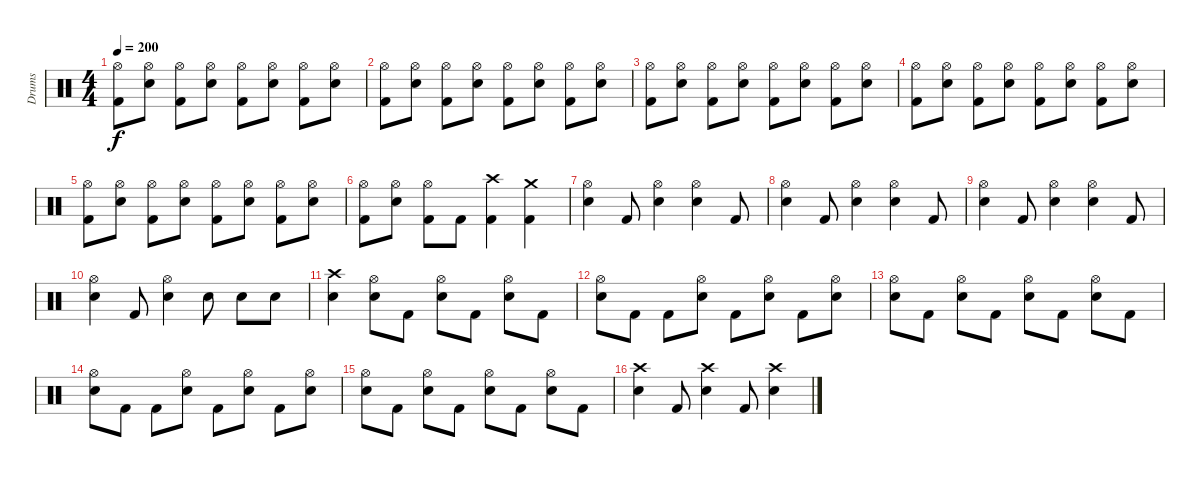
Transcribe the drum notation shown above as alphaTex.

\track ("Drums" "Drums") {instrument percussion}
\staff {score}
\articulation defaults
\ts (4 4)
\tempo 200
\clef neutral
\ks c
("Hi-Hat (open)" "Kick (hit) 2").8{dy f} ("Snare (hit) 2" "Hi-Hat (open)").8 ("Hi-Hat (open)" "Kick (hit) 2").8 ("Snare (hit) 2" "Hi-Hat (open)").8 ("Hi-Hat (open)" "Kick (hit) 2").8 ("Snare (hit) 2" "Hi-Hat (open)").8 ("Hi-Hat (open)" "Kick (hit) 2").8 ("Snare (hit) 2" "Hi-Hat (open)").8 |
("Hi-Hat (open)" "Kick (hit) 2").8 ("Snare (hit) 2" "Hi-Hat (open)").8 ("Hi-Hat (open)" "Kick (hit) 2").8 ("Snare (hit) 2" "Hi-Hat (open)").8 ("Hi-Hat (open)" "Kick (hit) 2").8 ("Snare (hit) 2" "Hi-Hat (open)").8 ("Hi-Hat (open)" "Kick (hit) 2").8 ("Snare (hit) 2" "Hi-Hat (open)").8 |
("Hi-Hat (open)" "Kick (hit) 2").8 ("Snare (hit) 2" "Hi-Hat (open)").8 ("Hi-Hat (open)" "Kick (hit) 2").8 ("Snare (hit) 2" "Hi-Hat (open)").8 ("Hi-Hat (open)" "Kick (hit) 2").8 ("Snare (hit) 2" "Hi-Hat (open)").8 ("Hi-Hat (open)" "Kick (hit) 2").8 ("Snare (hit) 2" "Hi-Hat (open)").8 |
("Hi-Hat (open)" "Kick (hit) 2").8 ("Snare (hit) 2" "Hi-Hat (open)").8 ("Hi-Hat (open)" "Kick (hit) 2").8 ("Snare (hit) 2" "Hi-Hat (open)").8 ("Hi-Hat (open)" "Kick (hit) 2").8 ("Snare (hit) 2" "Hi-Hat (open)").8 ("Hi-Hat (open)" "Kick (hit) 2").8 ("Snare (hit) 2" "Hi-Hat (open)").8 |
("Hi-Hat (open)" "Kick (hit) 2").8 ("Snare (hit) 2" "Hi-Hat (open)").8 ("Hi-Hat (open)" "Kick (hit) 2").8 ("Snare (hit) 2" "Hi-Hat (open)").8 ("Hi-Hat (open)" "Kick (hit) 2").8 ("Snare (hit) 2" "Hi-Hat (open)").8 ("Hi-Hat (open)" "Kick (hit) 2").8 ("Snare (hit) 2" "Hi-Hat (open)").8 |
("Hi-Hat (open)" "Kick (hit) 2").8 ("Snare (hit) 2" "Hi-Hat (open)").8 ("Hi-Hat (open)" "Kick (hit) 2").8 "Kick (hit) 2".8 ("Crash high (hit)" "Kick (hit) 2").4 ("Crash medium (hit)" "Kick (hit) 2").4 |
("Snare (hit) 2" "Hi-Hat (open)").4 "Kick (hit) 2".8 ("Snare (hit) 2" "Hi-Hat (open)").4 ("Snare (hit) 2" "Hi-Hat (open)").4 "Kick (hit) 2".8 |
("Snare (hit) 2" "Hi-Hat (open)").4 "Kick (hit) 2".8 ("Snare (hit) 2" "Hi-Hat (open)").4 ("Snare (hit) 2" "Hi-Hat (open)").4 "Kick (hit) 2".8 |
("Snare (hit) 2" "Hi-Hat (open)").4 "Kick (hit) 2".8 ("Snare (hit) 2" "Hi-Hat (open)").4 ("Snare (hit) 2" "Hi-Hat (open)").4 "Kick (hit) 2".8 |
("Snare (hit) 2" "Hi-Hat (open)").4 "Kick (hit) 2".8 ("Snare (hit) 2" "Hi-Hat (open)").4 "Snare (hit) 2".8 "Snare (hit) 2".8 "Snare (hit) 2".8 |
("Crash high (hit)" "Snare (hit) 2").4 ("Snare (hit) 2" "Hi-Hat (open)").8 "Kick (hit) 2".8 ("Snare (hit) 2" "Hi-Hat (open)").8 "Kick (hit) 2".8 ("Snare (hit) 2" "Hi-Hat (open)").8 "Kick (hit) 2".8 |
("Snare (hit) 2" "Hi-Hat (open)").8 "Kick (hit) 2".8 "Kick (hit) 2".8 ("Snare (hit) 2" "Hi-Hat (open)").8 "Kick (hit) 2".8 ("Snare (hit) 2" "Hi-Hat (open)").8 "Kick (hit) 2".8 ("Snare (hit) 2" "Hi-Hat (open)").8 |
("Snare (hit) 2" "Hi-Hat (open)").8 "Kick (hit) 2".8 ("Snare (hit) 2" "Hi-Hat (open)").8 "Kick (hit) 2".8 ("Snare (hit) 2" "Hi-Hat (open)").8 "Kick (hit) 2".8 ("Snare (hit) 2" "Hi-Hat (open)").8 "Kick (hit) 2".8 |
("Snare (hit) 2" "Hi-Hat (open)").8 "Kick (hit) 2".8 "Kick (hit) 2".8 ("Snare (hit) 2" "Hi-Hat (open)").8 "Kick (hit) 2".8 ("Snare (hit) 2" "Hi-Hat (open)").8 "Kick (hit) 2".8 ("Snare (hit) 2" "Hi-Hat (open)").8 |
("Snare (hit) 2" "Hi-Hat (open)").8 "Kick (hit) 2".8 ("Snare (hit) 2" "Hi-Hat (open)").8 "Kick (hit) 2".8 ("Snare (hit) 2" "Hi-Hat (open)").8 "Kick (hit) 2".8 ("Snare (hit) 2" "Hi-Hat (open)").8 "Kick (hit) 2".8 |
("Crash high (hit)" "Snare (hit) 2").4 "Kick (hit) 2".8 ("Crash high (hit)" "Snare (hit) 2").4 "Kick (hit) 2".8 ("Crash high (hit)" "Snare (hit) 2").4
